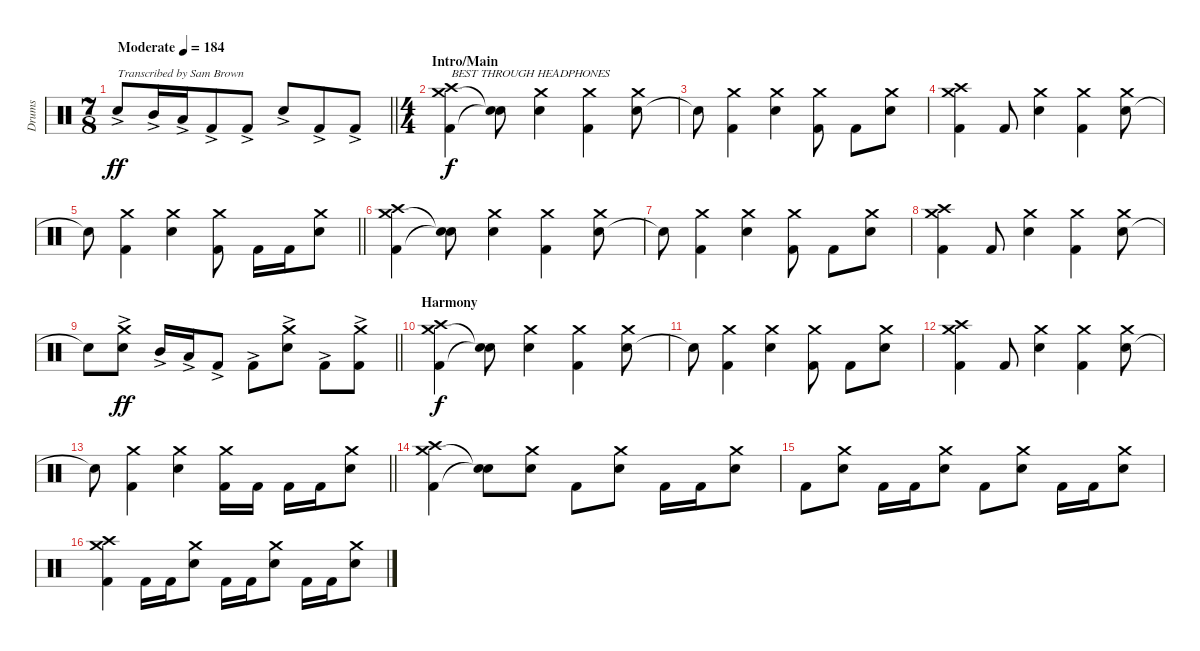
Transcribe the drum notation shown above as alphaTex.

\track ("Drums" "Drums") {instrument percussion}
\staff {score}
\articulation defaults
\ts (7 8)
\tempo (184 "Moderate")
\clef neutral
\barLineRight lightlight
\ks c "Snare (hit) 2"{ac}.8{txt "Transcribed by Sam Brown" dy ff} "Mid Tom (hit)"{ac}.16 "Low Tom (hit)"{ac}.16 "Kick (hit) 2"{ac}.8 "Kick (hit) 2"{ac}.8 "Snare (hit) 2"{ac}.8 "Kick (hit) 2"{ac}.8 "Kick (hit) 2"{ac}.8
|
\ts (4 4)
\section ("" "Intro/Main")
("Kick (hit) 2" "Crash medium (hit)" "Crash high (hit)").4{txt "BEST THROUGH HEADPHONES" dy f} ("Snare (hit)"{t} "Snare (hit)"{t}).8 ("Snare (hit) 2" "Crash medium (hit)").4 ("Kick (hit) 2" "Crash medium (hit)").4 ("Snare (hit) 2" "Crash medium (hit)").8 |
"Snare (hit)"{t}.8 ("Kick (hit) 2" "Crash medium (hit)").4 ("Snare (hit) 2" "Crash medium (hit)").4 ("Kick (hit) 2" "Crash medium (hit)").8 "Kick (hit) 2".8 ("Snare (hit) 2" "Crash medium (hit)").8 |
("Kick (hit) 2" "Crash medium (hit)" "Crash high (hit)").4 "Kick (hit) 2".8 ("Snare (hit) 2" "Crash medium (hit)").4 ("Kick (hit) 2" "Crash medium (hit)").4 ("Snare (hit) 2" "Crash medium (hit)").8 |
\barLineRight lightlight "Snare (hit)"{t}.8
("Kick (hit) 2" "Crash medium (hit)").4 ("Snare (hit) 2" "Crash medium (hit)").4 ("Kick (hit) 2" "Crash medium (hit)").8 "Kick (hit) 2".16 "Kick (hit) 2".16 ("Snare (hit) 2" "Crash medium (hit)").8 |
\section ("" "")
("Kick (hit) 2" "Crash medium (hit)" "Crash high (hit)").4 ("Snare (hit)"{t} "Snare (hit)"{t}).8 ("Snare (hit) 2" "Crash medium (hit)").4 ("Kick (hit) 2" "Crash medium (hit)").4 ("Snare (hit) 2" "Crash medium (hit)").8 |
"Snare (hit)"{t}.8 ("Kick (hit) 2" "Crash medium (hit)").4 ("Snare (hit) 2" "Crash medium (hit)").4 ("Kick (hit) 2" "Crash medium (hit)").8 "Kick (hit) 2".8 ("Snare (hit) 2" "Crash medium (hit)").8 |
("Kick (hit) 2" "Crash medium (hit)" "Crash high (hit)").4 "Kick (hit) 2".8 ("Snare (hit) 2" "Crash medium (hit)").4 ("Kick (hit) 2" "Crash medium (hit)").4 ("Snare (hit) 2" "Crash medium (hit)").8 |
\barLineRight lightlight "Snare (hit)"{t}.8
("Snare (hit) 2"{ac} "Crash medium (hit)").8{dy ff} "Mid Tom (hit)"{ac}.16 "Low Tom (hit)"{ac}.16 "Kick (hit) 2"{ac}.8 "Kick (hit) 2"{ac}.8 ("Snare (hit) 2"{ac} "Crash medium (hit)").8 "Kick (hit) 2"{ac}.8 ("Kick (hit) 2"{ac} "Crash medium (hit)").8 |
\section ("" "Harmony")
("Kick (hit) 2" "Crash medium (hit)" "Crash high (hit)").4{dy f} ("Snare (hit)"{t} "Snare (hit)"{t}).8 ("Snare (hit) 2" "Crash medium (hit)").4 ("Kick (hit) 2" "Crash medium (hit)").4 ("Snare (hit) 2" "Crash medium (hit)").8 |
"Snare (hit)"{t}.8 ("Kick (hit) 2" "Crash medium (hit)").4 ("Snare (hit) 2" "Crash medium (hit)").4 ("Kick (hit) 2" "Crash medium (hit)").8 "Kick (hit) 2".8 ("Snare (hit) 2" "Crash medium (hit)").8 |
("Kick (hit) 2" "Crash medium (hit)" "Crash high (hit)").4 "Kick (hit) 2".8 ("Snare (hit) 2" "Crash medium (hit)").4 ("Kick (hit) 2" "Crash medium (hit)").4 ("Snare (hit) 2" "Crash medium (hit)").8 |
\barLineRight lightlight "Snare (hit)"{t}.8
("Kick (hit) 2" "Crash medium (hit)").4 ("Snare (hit) 2" "Crash medium (hit)").4 ("Kick (hit) 2" "Crash medium (hit)").16 "Kick (hit) 2".16 "Kick (hit) 2".16 "Kick (hit) 2".16 ("Snare (hit) 2" "Crash medium (hit)").8 |
\section ("" "")
("Kick (hit) 2" "Crash medium (hit)" "Crash high (hit)").4 ("Snare (hit)"{t} "Snare (hit)"{t}).8 ("Snare (hit) 2" "Crash medium (hit)").8 "Kick (hit) 2".8 ("Snare (hit) 2" "Crash medium (hit)").8 "Kick (hit) 2".16 "Kick (hit) 2".16 ("Snare (hit) 2" "Crash medium (hit)").8 |
"Kick (hit) 2".8 ("Snare (hit) 2" "Crash medium (hit)").8 "Kick (hit) 2".16 "Kick (hit) 2".16 ("Snare (hit) 2" "Crash medium (hit)").8 "Kick (hit) 2".8 ("Snare (hit) 2" "Crash medium (hit)").8 "Kick (hit) 2".16 "Kick (hit) 2".16 ("Snare (hit) 2" "Crash medium (hit)").8 |
("Kick (hit) 2" "Crash medium (hit)" "Crash high (hit)").4 "Kick (hit) 2".16 "Kick (hit) 2".16 ("Snare (hit) 2" "Crash medium (hit)").8 "Kick (hit) 2".16 "Kick (hit) 2".16 ("Snare (hit) 2" "Crash medium (hit)").8 "Kick (hit) 2".16 "Kick (hit) 2".16 ("Snare (hit) 2" "Crash medium (hit)").8
